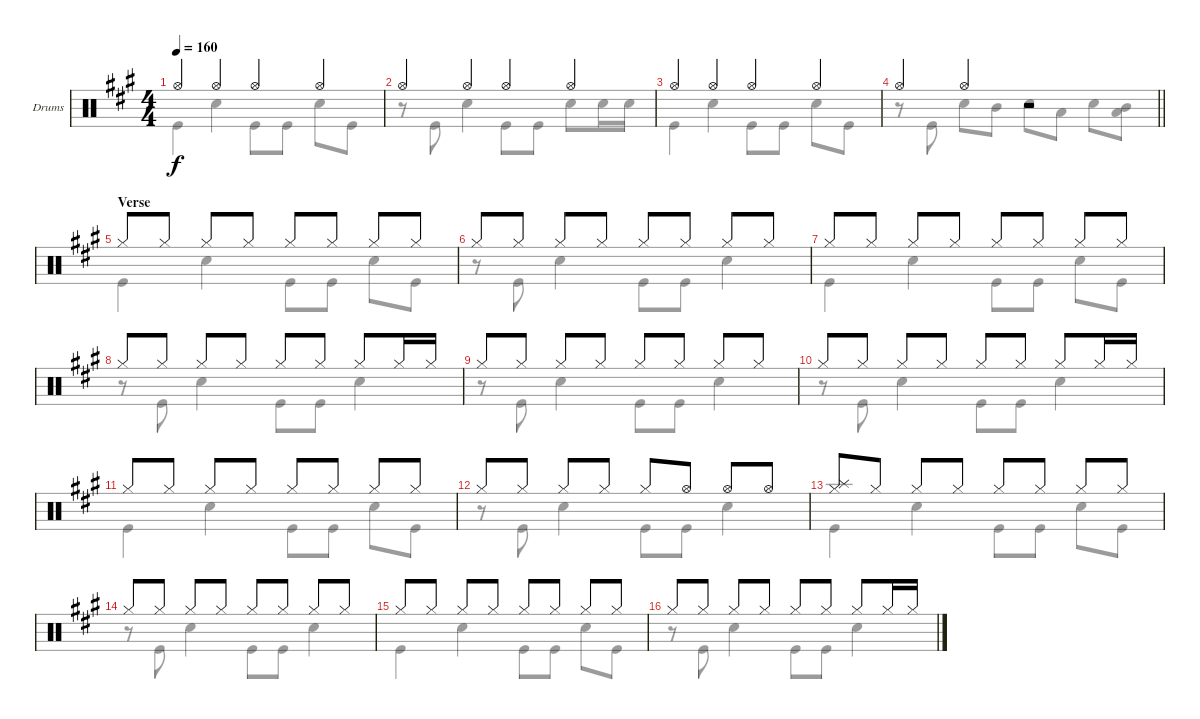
\bracketExtendMode groupsimilarinstruments
\firstSystemTrackNameOrientation horizontal
\otherSystemsTrackNameOrientation horizontal
\track ("Drumkit" "Drums") {instrument percussion}
\staff {score}
\articulation defaults
\voice
\ts (4 4)
\tempo 160
\clef neutral
\ks a "Hi-Hat (open)".4{dy f} "Hi-Hat (open)".4 "Hi-Hat (open)".4 "Hi-Hat (open)".4
|
"Hi-Hat (open)".4 "Hi-Hat (open)".4 "Hi-Hat (open)".4 "Hi-Hat (open)".4 |
"Hi-Hat (open)".4 "Hi-Hat (open)".4 "Hi-Hat (open)".4 "Hi-Hat (open)".4 |
\barLineRight lightlight "Hi-Hat (open)".4 "Hi-Hat (open)".4
r.2 |
\section ("" "Verse")
"Hi-Hat (closed)".8 "Hi-Hat (closed)".8 "Hi-Hat (closed)".8 "Hi-Hat (closed)".8 "Hi-Hat (closed)".8 "Hi-Hat (closed)".8 "Hi-Hat (closed)".8 "Hi-Hat (closed)".8 |
"Hi-Hat (closed)".8 "Hi-Hat (closed)".8 "Hi-Hat (closed)".8 "Hi-Hat (closed)".8 "Hi-Hat (closed)".8 "Hi-Hat (closed)".8 "Hi-Hat (closed)".8 "Hi-Hat (closed)".8 |
"Hi-Hat (closed)".8 "Hi-Hat (closed)".8 "Hi-Hat (closed)".8 "Hi-Hat (closed)".8 "Hi-Hat (closed)".8 "Hi-Hat (closed)".8 "Hi-Hat (closed)".8 "Hi-Hat (closed)".8 |
"Hi-Hat (closed)".8 "Hi-Hat (closed)".8 "Hi-Hat (closed)".8 "Hi-Hat (closed)".8 "Hi-Hat (closed)".8 "Hi-Hat (closed)".8 "Hi-Hat (closed)".8 "Hi-Hat (closed)".16 "Hi-Hat (closed)".16 |
"Hi-Hat (closed)".8 "Hi-Hat (closed)".8 "Hi-Hat (closed)".8 "Hi-Hat (closed)".8 "Hi-Hat (closed)".8 "Hi-Hat (closed)".8 "Hi-Hat (closed)".8 "Hi-Hat (closed)".8 |
"Hi-Hat (closed)".8 "Hi-Hat (closed)".8 "Hi-Hat (closed)".8 "Hi-Hat (closed)".8 "Hi-Hat (closed)".8 "Hi-Hat (closed)".8 "Hi-Hat (closed)".8 "Hi-Hat (closed)".16 "Hi-Hat (closed)".16 |
"Hi-Hat (closed)".8 "Hi-Hat (closed)".8 "Hi-Hat (closed)".8 "Hi-Hat (closed)".8 "Hi-Hat (closed)".8 "Hi-Hat (closed)".8 "Hi-Hat (closed)".8 "Hi-Hat (closed)".8 |
"Hi-Hat (closed)".8 "Hi-Hat (closed)".8 "Hi-Hat (closed)".8 "Hi-Hat (closed)".8 "Hi-Hat (closed)".8 "Hi-Hat (open)".8 "Hi-Hat (open)".8 "Hi-Hat (open)".8 |
("Splash (hit)" "Hi-Hat (closed)").8 "Hi-Hat (closed)".8 "Hi-Hat (closed)".8 "Hi-Hat (closed)".8 "Hi-Hat (closed)".8 "Hi-Hat (closed)".8 "Hi-Hat (closed)".8 "Hi-Hat (closed)".8 |
"Hi-Hat (closed)".8 "Hi-Hat (closed)".8 "Hi-Hat (closed)".8 "Hi-Hat (closed)".8 "Hi-Hat (closed)".8 "Hi-Hat (closed)".8 "Hi-Hat (closed)".8 "Hi-Hat (closed)".8 |
"Hi-Hat (closed)".8 "Hi-Hat (closed)".8 "Hi-Hat (closed)".8 "Hi-Hat (closed)".8 "Hi-Hat (closed)".8 "Hi-Hat (closed)".8 "Hi-Hat (closed)".8 "Hi-Hat (closed)".8 |
"Hi-Hat (closed)".8 "Hi-Hat (closed)".8 "Hi-Hat (closed)".8 "Hi-Hat (closed)".8 "Hi-Hat (closed)".8 "Hi-Hat (closed)".8 "Hi-Hat (closed)".8 "Hi-Hat (closed)".16 "Hi-Hat (closed)".16
\voice
\clef neutral
\ottava regular
\simile none
\ks a "Kick (hit)".4{dy f} "Snare (hit) 2".4 "Kick (hit)".8 "Kick (hit)".8 "Snare (hit) 2".8 "Kick (hit)".8
|
r.8 "Kick (hit)".8 "Snare (hit) 2".4 "Kick (hit)".8 "Kick (hit)".8 "Snare (hit) 2".8 "Snare (hit) 2".16 "Snare (hit) 2".16 |
"Kick (hit)".4 "Snare (hit) 2".4 "Kick (hit)".8 "Kick (hit)".8 "Snare (hit) 2".8 "Kick (hit)".8 |
\barLineRight lightlight
r.8 "Kick (hit)".8 "Snare (hit) 2".8 "Mid Tom (hit)".8 "Snare (hit) 2".8 "Low Tom (hit)".8 "Snare (hit) 2".8 ("Mid Tom (hit)" "Low Tom (hit)").8 |
"Kick (hit)".4 "Snare (hit) 2".4 "Kick (hit)".8 "Kick (hit)".8 "Snare (hit) 2".8 "Kick (hit)".8 |
r.8 "Kick (hit)".8 "Snare (hit) 2".4 "Kick (hit)".8 "Kick (hit)".8 "Snare (hit) 2".4 |
"Kick (hit)".4 "Snare (hit) 2".4 "Kick (hit)".8 "Kick (hit)".8 "Snare (hit) 2".8 "Kick (hit)".8 |
r.8 "Kick (hit)".8 "Snare (hit) 2".4 "Kick (hit)".8 "Kick (hit)".8 "Snare (hit) 2".4 |
r.8 "Kick (hit)".8 "Snare (hit) 2".4 "Kick (hit)".8 "Kick (hit)".8 "Snare (hit) 2".4 |
r.8 "Kick (hit)".8 "Snare (hit) 2".4 "Kick (hit)".8 "Kick (hit)".8 "Snare (hit) 2".4 |
"Kick (hit)".4 "Snare (hit) 2".4 "Kick (hit)".8 "Kick (hit)".8 "Snare (hit) 2".8 "Kick (hit)".8 |
r.8 "Kick (hit)".8 "Snare (hit) 2".4 "Kick (hit)".8 "Kick (hit)".8 "Snare (hit) 2".4 |
"Kick (hit)".4 "Snare (hit) 2".4 "Kick (hit)".8 "Kick (hit)".8 "Snare (hit) 2".8 "Kick (hit)".8 |
r.8 "Kick (hit)".8 "Snare (hit) 2".4 "Kick (hit)".8 "Kick (hit)".8 "Snare (hit) 2".4 |
"Kick (hit)".4 "Snare (hit) 2".4 "Kick (hit)".8 "Kick (hit)".8 "Snare (hit) 2".8 "Kick (hit)".8 |
r.8 "Kick (hit)".8 "Snare (hit) 2".4 "Kick (hit)".8 "Kick (hit)".8 "Snare (hit) 2".4
